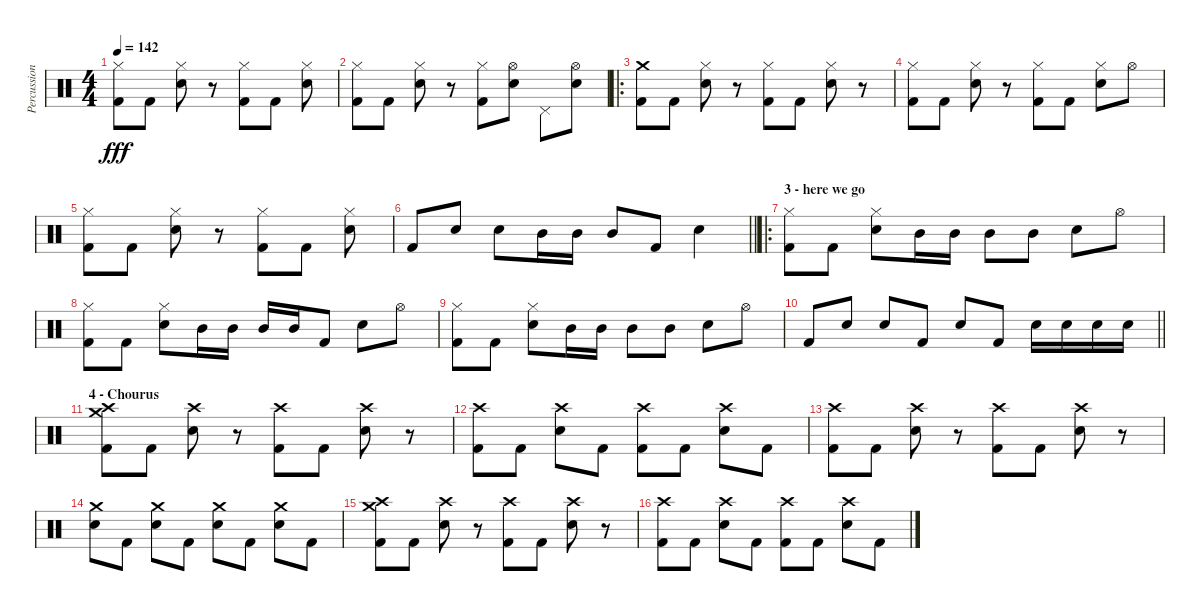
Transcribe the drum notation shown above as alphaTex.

\track ("Percussion" "Percussion") {instrument percussion}
\staff {score}
\articulation defaults
\ts (4 4)
\tempo 142
\clef neutral
\ks c
("Hi-Hat (closed)" "Kick (hit) 2").8{dy fff} "Kick (hit) 2".8 ("Hi-Hat (closed)" "Electric Snare (hit)").8 r.8 ("Hi-Hat (closed)" "Kick (hit) 2").8 "Kick (hit) 2".8 ("Hi-Hat (closed)" "Electric Snare (hit)").8 |
("Hi-Hat (closed)" "Kick (hit) 2").8 "Kick (hit) 2".8 ("Hi-Hat (closed)" "Electric Snare (hit)").8 r.8 ("Hi-Hat (closed)" "Kick (hit) 2").8 ("Hi-Hat (open)" "Electric Snare (hit)").8 "Pedal Hi-Hat (hit)".8 ("Hi-Hat (open)" "Electric Snare (hit)").8 |
\ro
("Crash medium (hit)" "Kick (hit) 2").8 "Kick (hit) 2".8 ("Hi-Hat (closed)" "Electric Snare (hit)").8 r.8 ("Hi-Hat (closed)" "Kick (hit) 2").8 "Kick (hit) 2".8 ("Hi-Hat (closed)" "Electric Snare (hit)").8 r.8 |
("Hi-Hat (closed)" "Kick (hit) 2").8 "Kick (hit) 2".8 ("Hi-Hat (closed)" "Electric Snare (hit)").8 r.8 ("Hi-Hat (closed)" "Kick (hit) 2").8 "Kick (hit) 2".8 ("Hi-Hat (closed)" "Electric Snare (hit)").8 "Hi-Hat (open)".8 |
("Hi-Hat (closed)" "Kick (hit) 2").8 "Kick (hit) 2".8 ("Hi-Hat (closed)" "Electric Snare (hit)").8 r.8 ("Hi-Hat (closed)" "Kick (hit) 2").8 "Kick (hit) 2".8 ("Hi-Hat (closed)" "Electric Snare (hit)").8 |
\barLineRight lightlight "Kick (hit) 2".8 "Electric Snare (hit)".8 "Electric Snare (hit)".8 "Mid Tom (hit)".16 "Mid Tom (hit)".16 "Mid Tom (hit)".8 "Kick (hit) 2".8 "Electric Snare (hit)".4
|
\ro
\section ("" "3 - here we go")
("Hi-Hat (closed)" "Kick (hit) 2").8 "Kick (hit) 2".8 ("Hi-Hat (closed)" "Electric Snare (hit)").8 "Mid Tom (hit)".16 "Mid Tom (hit)".16 "Mid Tom (hit)".8 "Mid Tom (hit)".8 "Electric Snare (hit)".8 "Hi-Hat (open)".8 |
("Hi-Hat (closed)" "Kick (hit) 2").8 "Kick (hit) 2".8 ("Hi-Hat (closed)" "Electric Snare (hit)").8 "Mid Tom (hit)".16 "Mid Tom (hit)".16 "Mid Tom (hit)".16 "Mid Tom (hit)".16 "Kick (hit) 2".8 "Electric Snare (hit)".8 "Hi-Hat (open)".8 |
("Hi-Hat (closed)" "Kick (hit) 2").8 "Kick (hit) 2".8 ("Hi-Hat (closed)" "Electric Snare (hit)").8 "Mid Tom (hit)".16 "Mid Tom (hit)".16 "Mid Tom (hit)".8 "Mid Tom (hit)".8 "Electric Snare (hit)".8 "Hi-Hat (open)".8 |
\barLineRight lightlight "Kick (hit) 2".8 "Electric Snare (hit)".8 "Electric Snare (hit)".8 "Kick (hit) 2".8 "Electric Snare (hit)".8 "Kick (hit) 2".8 "Electric Snare (hit)".16 "Electric Snare (hit)".16 "Electric Snare (hit)".16 "Electric Snare (hit)".16
|
\section ("" "4 - Chourus")
("Crash medium (hit)" "Crash high (hit)" "Kick (hit) 2").8 "Kick (hit) 2".8 ("Crash high (hit)" "Electric Snare (hit)").8 r.8 ("Crash high (hit)" "Kick (hit) 2").8 "Kick (hit) 2".8 ("Crash high (hit)" "Electric Snare (hit)").8 r.8 |
("Crash high (hit)" "Kick (hit) 2").8 "Kick (hit) 2".8 ("Crash high (hit)" "Electric Snare (hit)").8 "Kick (hit) 2".8 ("Crash high (hit)" "Kick (hit) 2").8 "Kick (hit) 2".8 ("Crash high (hit)" "Electric Snare (hit)").8 "Kick (hit) 2".8 |
("Crash high (hit)" "Kick (hit) 2").8 "Kick (hit) 2".8 ("Crash high (hit)" "Electric Snare (hit)").8 r.8 ("Crash high (hit)" "Kick (hit) 2").8 "Kick (hit) 2".8 ("Crash high (hit)" "Electric Snare (hit)").8 r.8 |
("Crash medium (hit)" "Electric Snare (hit)").8 "Kick (hit) 2".8 ("Crash medium (hit)" "Electric Snare (hit)").8 "Kick (hit) 2".8 ("Crash medium (hit)" "Electric Snare (hit)").8 "Kick (hit) 2".8 ("Crash medium (hit)" "Electric Snare (hit)").8 "Kick (hit) 2".8 |
("Crash medium (hit)" "Crash high (hit)" "Kick (hit) 2").8 "Kick (hit) 2".8 ("Crash high (hit)" "Electric Snare (hit)").8 r.8 ("Crash high (hit)" "Kick (hit) 2").8 "Kick (hit) 2".8 ("Crash high (hit)" "Electric Snare (hit)").8 r.8 |
("Crash high (hit)" "Kick (hit) 2").8 "Kick (hit) 2".8 ("Crash high (hit)" "Electric Snare (hit)").8 "Kick (hit) 2".8 ("Crash high (hit)" "Kick (hit) 2").8 "Kick (hit) 2".8 ("Crash high (hit)" "Electric Snare (hit)").8 "Kick (hit) 2".8
